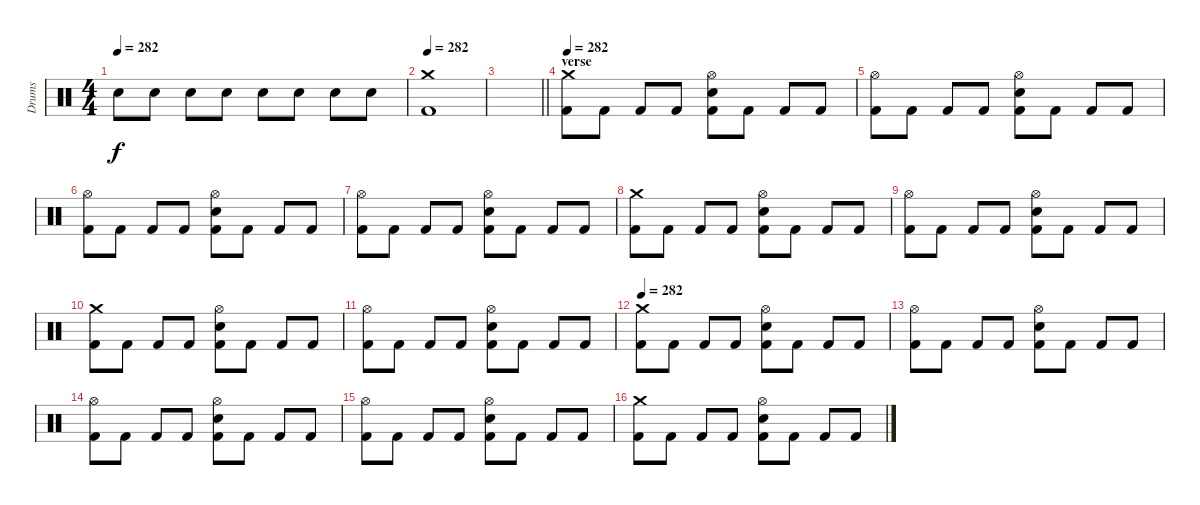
\track ("Drums" "Drums") {instrument percussion}
\staff {score}
\articulation defaults
\ts (4 4)
\tempo 282
\clef neutral
\ks c "Snare (hit) 2".8{dy f} "Snare (hit) 2".8 "Snare (hit) 2".8 "Snare (hit) 2".8 "Snare (hit) 2".8 "Snare (hit) 2".8 "Snare (hit) 2".8 "Snare (hit) 2".8
|
\tempo 282
("Crash medium (hit)" "Kick (hit) 2").1 |
\barLineRight lightlight
|
\section ("" "verse")
\tempo 282
("Crash medium (hit)" "Kick (hit) 2").8 "Kick (hit) 2".8 "Kick (hit) 2".8 "Kick (hit) 2".8 ("Hi-Hat (open)" "Snare (hit) 2" "Kick (hit) 2").8 "Kick (hit) 2".8 "Kick (hit) 2".8 "Kick (hit) 2".8 |
("Hi-Hat (open)" "Kick (hit) 2").8 "Kick (hit) 2".8 "Kick (hit) 2".8 "Kick (hit) 2".8 ("Hi-Hat (open)" "Snare (hit) 2" "Kick (hit) 2").8 "Kick (hit) 2".8 "Kick (hit) 2".8 "Kick (hit) 2".8 |
("Hi-Hat (open)" "Kick (hit) 2").8 "Kick (hit) 2".8 "Kick (hit) 2".8 "Kick (hit) 2".8 ("Hi-Hat (open)" "Snare (hit) 2" "Kick (hit) 2").8 "Kick (hit) 2".8 "Kick (hit) 2".8 "Kick (hit) 2".8 |
("Hi-Hat (open)" "Kick (hit) 2").8 "Kick (hit) 2".8 "Kick (hit) 2".8 "Kick (hit) 2".8 ("Hi-Hat (open)" "Snare (hit) 2" "Kick (hit) 2").8 "Kick (hit) 2".8 "Kick (hit) 2".8 "Kick (hit) 2".8 |
("Crash medium (hit)" "Kick (hit) 2").8 "Kick (hit) 2".8 "Kick (hit) 2".8 "Kick (hit) 2".8 ("Hi-Hat (open)" "Snare (hit) 2" "Kick (hit) 2").8 "Kick (hit) 2".8 "Kick (hit) 2".8 "Kick (hit) 2".8 |
("Hi-Hat (open)" "Kick (hit) 2").8 "Kick (hit) 2".8 "Kick (hit) 2".8 "Kick (hit) 2".8 ("Hi-Hat (open)" "Snare (hit) 2" "Kick (hit) 2").8 "Kick (hit) 2".8 "Kick (hit) 2".8 "Kick (hit) 2".8 |
("Crash medium (hit)" "Kick (hit) 2").8 "Kick (hit) 2".8 "Kick (hit) 2".8 "Kick (hit) 2".8 ("Hi-Hat (open)" "Snare (hit) 2" "Kick (hit) 2").8 "Kick (hit) 2".8 "Kick (hit) 2".8 "Kick (hit) 2".8 |
("Hi-Hat (open)" "Kick (hit) 2").8 "Kick (hit) 2".8 "Kick (hit) 2".8 "Kick (hit) 2".8 ("Hi-Hat (open)" "Snare (hit) 2" "Kick (hit) 2").8 "Kick (hit) 2".8 "Kick (hit) 2".8 "Kick (hit) 2".8 |
\tempo 282
("Crash medium (hit)" "Kick (hit) 2").8 "Kick (hit) 2".8 "Kick (hit) 2".8 "Kick (hit) 2".8 ("Hi-Hat (open)" "Snare (hit) 2" "Kick (hit) 2").8 "Kick (hit) 2".8 "Kick (hit) 2".8 "Kick (hit) 2".8 |
("Hi-Hat (open)" "Kick (hit) 2").8 "Kick (hit) 2".8 "Kick (hit) 2".8 "Kick (hit) 2".8 ("Hi-Hat (open)" "Snare (hit) 2" "Kick (hit) 2").8 "Kick (hit) 2".8 "Kick (hit) 2".8 "Kick (hit) 2".8 |
("Hi-Hat (open)" "Kick (hit) 2").8 "Kick (hit) 2".8 "Kick (hit) 2".8 "Kick (hit) 2".8 ("Hi-Hat (open)" "Snare (hit) 2" "Kick (hit) 2").8 "Kick (hit) 2".8 "Kick (hit) 2".8 "Kick (hit) 2".8 |
("Hi-Hat (open)" "Kick (hit) 2").8 "Kick (hit) 2".8 "Kick (hit) 2".8 "Kick (hit) 2".8 ("Hi-Hat (open)" "Snare (hit) 2" "Kick (hit) 2").8 "Kick (hit) 2".8 "Kick (hit) 2".8 "Kick (hit) 2".8 |
("Crash medium (hit)" "Kick (hit) 2").8 "Kick (hit) 2".8 "Kick (hit) 2".8 "Kick (hit) 2".8 ("Hi-Hat (open)" "Snare (hit) 2" "Kick (hit) 2").8 "Kick (hit) 2".8 "Kick (hit) 2".8 "Kick (hit) 2".8
